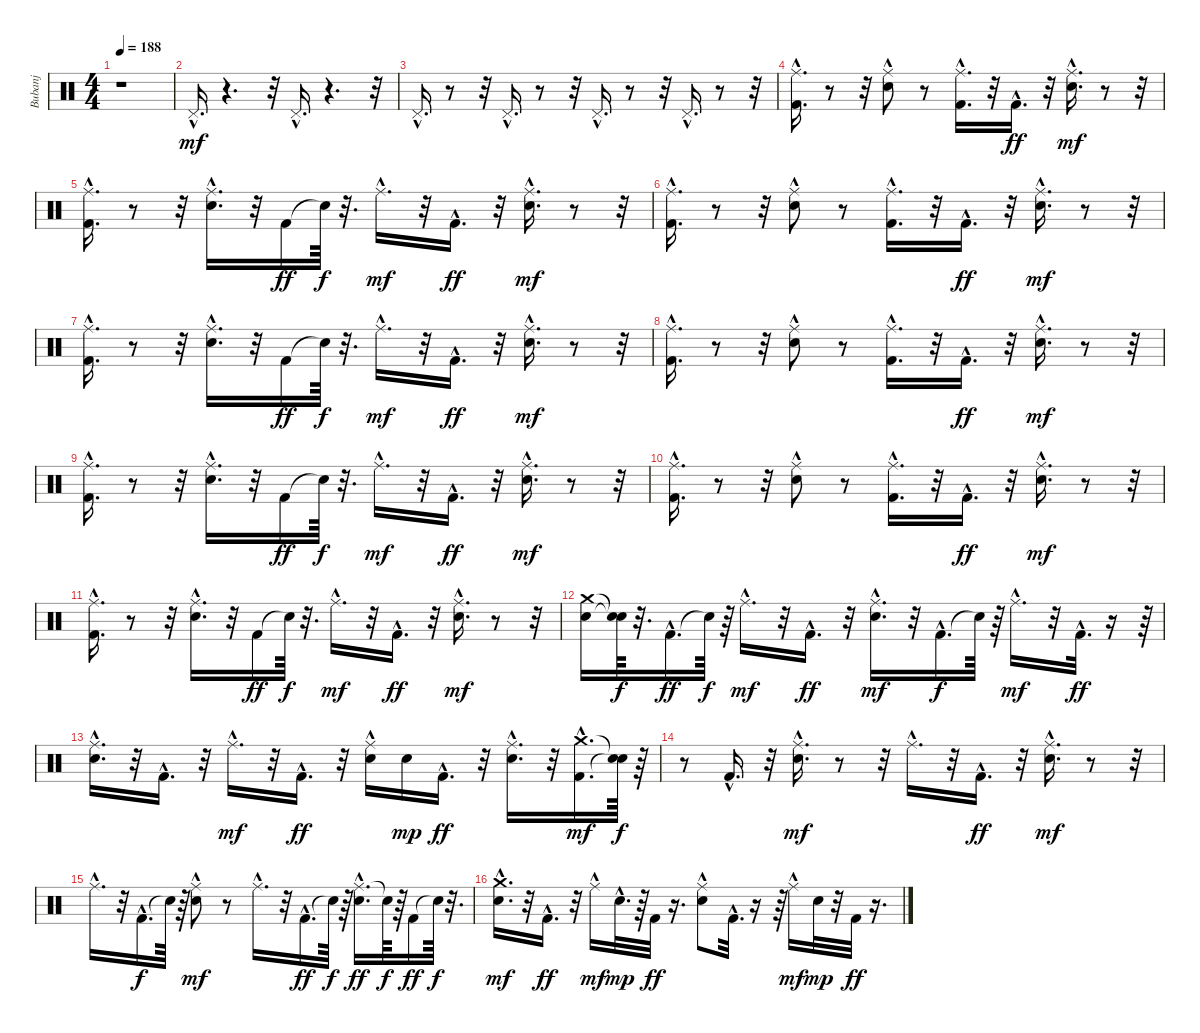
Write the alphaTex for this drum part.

\track ("Bubanj" "Bubanj") {instrument percussion}
\staff {score}
\articulation defaults
\ts (4 4)
\tempo 188
\clef neutral
\ks c
r.1{dy mf} |
"Pedal Hi-Hat (hit)"{hac}.16{d} r.4{d} r.32 "Pedal Hi-Hat (hit)"{hac}.16{d} r.4{d} r.32 |
"Pedal Hi-Hat (hit)"{hac}.16{d} r.8 r.32 "Pedal Hi-Hat (hit)"{hac}.16{d} r.8 r.32 "Pedal Hi-Hat (hit)"{hac}.16{d} r.8 r.32 "Pedal Hi-Hat (hit)"{hac}.16{d} r.8 r.32 |
("Kick (hit) 2"{hac} "Ride (middle)"{hac}).16{d} r.8 r.32 ("Electric Snare (hit)" "Ride (middle)"{hac}).8 r.8 ("Kick (hit) 2" "Ride (middle)"{hac}).16{d} r.32 "Kick (hit) 2"{hac}.16{d dy ff} r.32 ("Electric Snare (hit)" "Ride (middle)"{hac}).16{d dy mf} r.8 r.32 |
("Kick (hit) 2"{hac} "Ride (middle)"{hac}).16{d} r.8 r.32 ("Electric Snare (hit)" "Ride (middle)"{hac}).16{d} r.32 "Kick (hit) 2".16{dy ff} "Snare (hit)"{t}.64{dy f} r.32{d} "Ride (middle)"{hac}.16{d dy mf} r.32 "Kick (hit) 2"{hac}.16{d dy ff} r.32 ("Electric Snare (hit)" "Ride (middle)"{hac}).16{d dy mf} r.8 r.32 |
("Kick (hit) 2"{hac} "Ride (middle)"{hac}).16{d} r.8 r.32 ("Electric Snare (hit)" "Ride (middle)"{hac}).8 r.8 ("Kick (hit) 2" "Ride (middle)"{hac}).16{d} r.32 "Kick (hit) 2"{hac}.16{d dy ff} r.32 ("Electric Snare (hit)" "Ride (middle)"{hac}).16{d dy mf} r.8 r.32 |
("Kick (hit) 2"{hac} "Ride (middle)"{hac}).16{d} r.8 r.32 ("Electric Snare (hit)" "Ride (middle)"{hac}).16{d} r.32 "Kick (hit) 2".16{dy ff} "Snare (hit)"{t}.64{dy f} r.32{d} "Ride (middle)"{hac}.16{d dy mf} r.32 "Kick (hit) 2"{hac}.16{d dy ff} r.32 ("Electric Snare (hit)" "Ride (middle)"{hac}).16{d dy mf} r.8 r.32 |
("Kick (hit) 2"{hac} "Ride (middle)"{hac}).16{d} r.8 r.32 ("Electric Snare (hit)" "Ride (middle)"{hac}).8 r.8 ("Kick (hit) 2" "Ride (middle)"{hac}).16{d} r.32 "Kick (hit) 2"{hac}.16{d dy ff} r.32 ("Electric Snare (hit)" "Ride (middle)"{hac}).16{d dy mf} r.8 r.32 |
("Kick (hit) 2"{hac} "Ride (middle)"{hac}).16{d} r.8 r.32 ("Electric Snare (hit)" "Ride (middle)"{hac}).16{d} r.32 "Kick (hit) 2".16{dy ff} "Snare (hit)"{t}.64{dy f} r.32{d} "Ride (middle)"{hac}.16{d dy mf} r.32 "Kick (hit) 2"{hac}.16{d dy ff} r.32 ("Electric Snare (hit)" "Ride (middle)"{hac}).16{d dy mf} r.8 r.32 |
("Kick (hit) 2"{hac} "Ride (middle)"{hac}).16{d} r.8 r.32 ("Electric Snare (hit)" "Ride (middle)"{hac}).8 r.8 ("Kick (hit) 2" "Ride (middle)"{hac}).16{d} r.32 "Kick (hit) 2"{hac}.16{d dy ff} r.32 ("Electric Snare (hit)" "Ride (middle)"{hac}).16{d dy mf} r.8 r.32 |
("Kick (hit) 2"{hac} "Ride (middle)"{hac}).16{d} r.8 r.32 ("Electric Snare (hit)" "Ride (middle)"{hac}).16{d} r.32 "Kick (hit) 2".16{dy ff} "Snare (hit)"{t}.64{dy f} r.32{d} "Ride (middle)"{hac}.16{d dy mf} r.32 "Kick (hit) 2"{hac}.16{d dy ff} r.32 ("Electric Snare (hit)" "Ride (middle)"{hac}).16{d dy mf} r.8 r.32 |
("Electric Snare (hit)" "Crash medium (hit)").16 ("Snare (hit)"{t} "Snare (hit)"{t}).64{dy f} r.32{d} "Kick (hit) 2"{hac}.16{d dy ff} "Snare (hit)"{t}.64{dy f} r.64 "Ride (middle)"{hac}.16{d dy mf} r.32 "Kick (hit) 2"{hac}.16{d dy ff} r.32 ("Electric Snare (hit)"{hac} "Ride (middle)"{hac}).16{d dy mf} r.32 "Kick (hit) 2"{hac}.16{d dy f} "Snare (hit)"{t}.64 r.64 "Ride (middle)"{hac}.16{d dy mf} r.32 "Kick (hit) 2"{hac}.32{d dy ff} r.16 r.64 |
("Ride (middle)"{hac} "Electric Snare (hit)"{hac}).16{d} r.32 "Kick (hit) 2"{hac}.16{d} r.32 "Ride (middle)"{hac}.16{d dy mf} r.32 "Kick (hit) 2"{hac}.16{d dy ff} r.32 ("Ride (middle)"{hac} "Electric Snare (hit)"{hac}).16 "Electric Snare (hit)".16{dy mp} "Kick (hit) 2"{hac}.16{d dy ff} r.32 ("Ride (middle)"{hac} "Electric Snare (hit)"{hac}).16{d} r.32 ("Kick (hit) 2"{hac} "Crash medium (hit)"{hac}).16{d dy mf} ("Snare (hit)"{t} "Snare (hit)"{t}).64{dy f} r.64 |
r.8 "Kick (hit) 2"{hac}.16{d} r.32 ("Electric Snare (hit)"{hac} "Ride (middle)"{hac}).16{d dy mf} r.8 r.32 "Ride (middle)"{hac}.16{d} r.32 "Kick (hit) 2"{hac}.16{d dy ff} r.32 ("Electric Snare (hit)" "Ride (middle)"{hac}).16{d dy mf} r.8 r.32 |
"Ride (middle)"{hac}.16{d} r.32 "Kick (hit) 2"{hac}.16{d dy f} "Snare (hit)"{t}.64 r.64 ("Electric Snare (hit)" "Ride (middle)"{hac}).8{dy mf} r.8 "Ride (middle)"{hac}.16{d} r.32 "Kick (hit) 2"{hac}.16{d dy ff} "Snare (hit)"{t}.64{dy f} r.64 ("Ride (middle)"{hac} "Electric Snare (hit)"{hac}).16{d dy ff} "Snare (hit)"{t}.64{dy f} r.64 "Kick (hit) 2".16{dy ff} "Snare (hit)"{t}.64{dy f} r.32{d} |
("Electric Snare (hit)"{hac} "Crash medium (hit)"{hac}).16{d dy mf} r.32 "Kick (hit) 2"{hac}.16{d dy ff} r.32 "Ride (middle)"{hac}.16{dy mf} "Electric Snare (hit)"{hac}.32{d dy mp} r.64 "Kick (hit) 2".32{dy ff} r.16{d} ("Ride (middle)"{hac} "Electric Snare (hit)").8 "Kick (hit) 2"{hac}.32{d} r.16 r.64 "Ride (middle)"{hac}.16{dy mf} "Electric Snare (hit)".32{dy mp} r.32 "Kick (hit) 2".32{dy ff} r.16{d}
